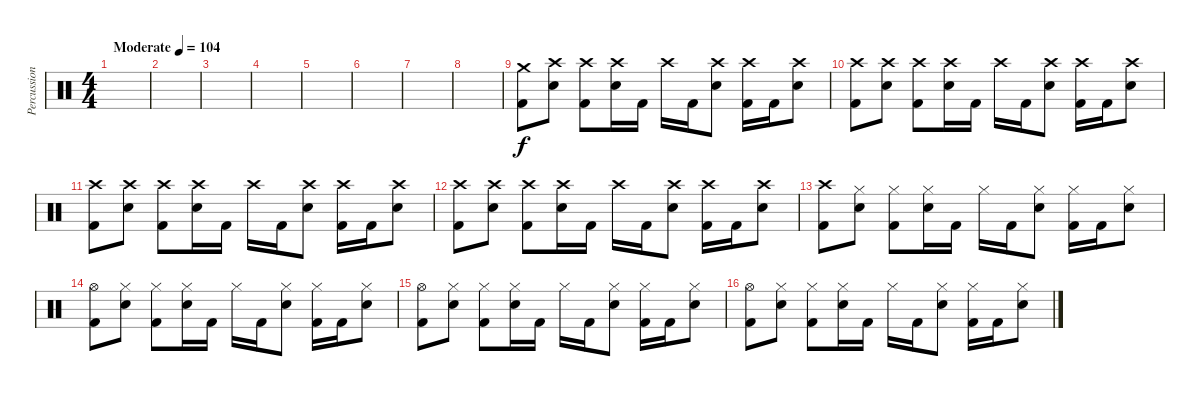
\track ("Percussion" "Percussion") {instrument percussion}
\staff {score}
\articulation defaults
\ts (4 4)
\tempo (104 "Moderate")
\clef neutral
\ks c
|
|
|
|
|
|
|
|
("Crash medium (hit)" "Kick (hit) 2").8 ("Crash high (hit)" "Electric Snare (hit)").8 ("Crash high (hit)" "Kick (hit) 2").8 ("Crash high (hit)" "Electric Snare (hit)").16 "Kick (hit) 2".16 "Crash high (hit)".16 "Kick (hit) 2".16 ("Crash high (hit)" "Electric Snare (hit)").8 ("Crash high (hit)" "Kick (hit) 2").16 "Kick (hit) 2".16 ("Crash high (hit)" "Electric Snare (hit)").8 |
("Crash high (hit)" "Kick (hit) 2").8 ("Crash high (hit)" "Electric Snare (hit)").8 ("Crash high (hit)" "Kick (hit) 2").8 ("Crash high (hit)" "Electric Snare (hit)").16 "Kick (hit) 2".16 "Crash high (hit)".16 "Kick (hit) 2".16 ("Crash high (hit)" "Electric Snare (hit)").8 ("Crash high (hit)" "Kick (hit) 2").16 "Kick (hit) 2".16 ("Crash high (hit)" "Electric Snare (hit)").8 |
("Crash high (hit)" "Kick (hit) 2").8 ("Crash high (hit)" "Electric Snare (hit)").8 ("Crash high (hit)" "Kick (hit) 2").8 ("Crash high (hit)" "Electric Snare (hit)").16 "Kick (hit) 2".16 "Crash high (hit)".16 "Kick (hit) 2".16 ("Crash high (hit)" "Electric Snare (hit)").8 ("Crash high (hit)" "Kick (hit) 2").16 "Kick (hit) 2".16 ("Crash high (hit)" "Electric Snare (hit)").8 |
("Crash high (hit)" "Kick (hit) 2").8 ("Crash high (hit)" "Electric Snare (hit)").8 ("Crash high (hit)" "Kick (hit) 2").8 ("Crash high (hit)" "Electric Snare (hit)").16 "Kick (hit) 2".16 "Crash high (hit)".16 "Kick (hit) 2".16 ("Crash high (hit)" "Electric Snare (hit)").8 ("Crash high (hit)" "Kick (hit) 2").16 "Kick (hit) 2".16 ("Crash high (hit)" "Electric Snare (hit)").8 |
("Crash high (hit)" "Kick (hit) 2").8 ("Hi-Hat (closed)" "Electric Snare (hit)").8 ("Hi-Hat (closed)" "Kick (hit) 2").8 ("Hi-Hat (closed)" "Electric Snare (hit)").16 "Kick (hit) 2".16 "Hi-Hat (closed)".16 "Kick (hit) 2".16 ("Hi-Hat (closed)" "Electric Snare (hit)").8 ("Hi-Hat (closed)" "Kick (hit) 2").16 "Kick (hit) 2".16 ("Hi-Hat (closed)" "Electric Snare (hit)").8 |
("Hi-Hat (open)" "Kick (hit) 2").8 ("Hi-Hat (closed)" "Electric Snare (hit)").8 ("Hi-Hat (closed)" "Kick (hit) 2").8 ("Hi-Hat (closed)" "Electric Snare (hit)").16 "Kick (hit) 2".16 "Hi-Hat (closed)".16 "Kick (hit) 2".16 ("Hi-Hat (closed)" "Electric Snare (hit)").8 ("Hi-Hat (closed)" "Kick (hit) 2").16 "Kick (hit) 2".16 ("Hi-Hat (closed)" "Electric Snare (hit)").8 |
("Hi-Hat (open)" "Kick (hit) 2").8 ("Hi-Hat (closed)" "Electric Snare (hit)").8 ("Hi-Hat (closed)" "Kick (hit) 2").8 ("Hi-Hat (closed)" "Electric Snare (hit)").16 "Kick (hit) 2".16 "Hi-Hat (closed)".16 "Kick (hit) 2".16 ("Hi-Hat (closed)" "Electric Snare (hit)").8 ("Hi-Hat (closed)" "Kick (hit) 2").16 "Kick (hit) 2".16 ("Hi-Hat (closed)" "Electric Snare (hit)").8 |
("Hi-Hat (open)" "Kick (hit) 2").8 ("Hi-Hat (closed)" "Electric Snare (hit)").8 ("Hi-Hat (closed)" "Kick (hit) 2").8 ("Hi-Hat (closed)" "Electric Snare (hit)").16 "Kick (hit) 2".16 "Hi-Hat (closed)".16 "Kick (hit) 2".16 ("Hi-Hat (closed)" "Electric Snare (hit)").8 ("Hi-Hat (closed)" "Kick (hit) 2").16 "Kick (hit) 2".16 ("Hi-Hat (closed)" "Electric Snare (hit)").8
